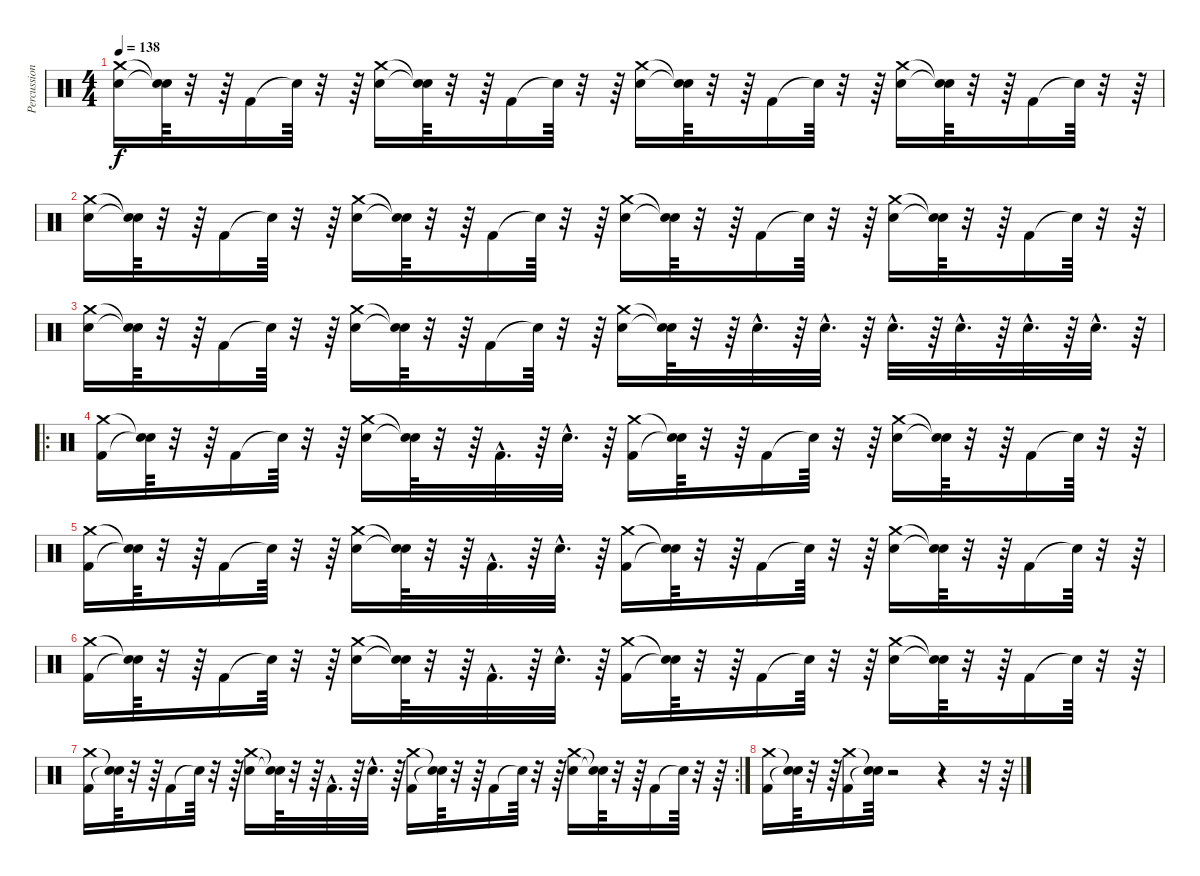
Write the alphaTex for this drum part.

\track ("Percussions" "Percussion") {instrument percussion}
\staff {score}
\articulation defaults
\ts (4 4)
\tempo 138
\clef neutral
\ks c
("Electric Snare (hit)" "Crash medium (hit)").16{dy f} ("Snare (hit)"{t} "Snare (hit)"{t}).64 r.32 r.64 "Kick (hit) 2".16 "Snare (hit)"{t}.64 r.32 r.64 ("Electric Snare (hit)" "Crash medium (hit)").16 ("Snare (hit)"{t} "Snare (hit)"{t}).64 r.32 r.64 "Kick (hit) 2".16 "Snare (hit)"{t}.64 r.32 r.64 ("Electric Snare (hit)" "Crash medium (hit)").16 ("Snare (hit)"{t} "Snare (hit)"{t}).64 r.32 r.64 "Kick (hit) 2".16 "Snare (hit)"{t}.64 r.32 r.64 ("Electric Snare (hit)" "Crash medium (hit)").16 ("Snare (hit)"{t} "Snare (hit)"{t}).64 r.32 r.64 "Kick (hit) 2".16 "Snare (hit)"{t}.64 r.32 r.64 |
("Electric Snare (hit)" "Crash medium (hit)").16 ("Snare (hit)"{t} "Snare (hit)"{t}).64 r.32 r.64 "Kick (hit) 2".16 "Snare (hit)"{t}.64 r.32 r.64 ("Electric Snare (hit)" "Crash medium (hit)").16 ("Snare (hit)"{t} "Snare (hit)"{t}).64 r.32 r.64 "Kick (hit) 2".16 "Snare (hit)"{t}.64 r.32 r.64 ("Electric Snare (hit)" "Crash medium (hit)").16 ("Snare (hit)"{t} "Snare (hit)"{t}).64 r.32 r.64 "Kick (hit) 2".16 "Snare (hit)"{t}.64 r.32 r.64 ("Electric Snare (hit)" "Crash medium (hit)").16 ("Snare (hit)"{t} "Snare (hit)"{t}).64 r.32 r.64 "Kick (hit) 2".16 "Snare (hit)"{t}.64 r.32 r.64 |
("Electric Snare (hit)" "Crash medium (hit)").16 ("Snare (hit)"{t} "Snare (hit)"{t}).64 r.32 r.64 "Kick (hit) 2".16 "Snare (hit)"{t}.64 r.32 r.64 ("Electric Snare (hit)" "Crash medium (hit)").16 ("Snare (hit)"{t} "Snare (hit)"{t}).64 r.32 r.64 "Kick (hit) 2".16 "Snare (hit)"{t}.64 r.32 r.64 ("Electric Snare (hit)" "Crash medium (hit)").16 ("Snare (hit)"{t} "Snare (hit)"{t}).64 r.32 r.64 "Electric Snare (hit)"{hac}.32{d} r.64 "Electric Snare (hit)"{hac}.32{d} r.64 "Electric Snare (hit)"{hac}.32{d} r.64 "Electric Snare (hit)"{hac}.32{d} r.64 "Electric Snare (hit)"{hac}.32{d} r.64 "Electric Snare (hit)"{hac}.32{d} r.64 |
\ro
("Kick (hit) 2" "Crash medium (hit)").16 ("Snare (hit)"{t} "Snare (hit)"{t}).64 r.32 r.64 "Kick (hit) 2".16 "Snare (hit)"{t}.64 r.32 r.64 ("Electric Snare (hit)" "Crash medium (hit)").16 ("Snare (hit)"{t} "Snare (hit)"{t}).64 r.32 r.64 "Kick (hit) 2"{hac}.32{d} r.64 "Electric Snare (hit)"{hac}.32{d} r.64 ("Kick (hit) 2" "Crash medium (hit)").16 ("Snare (hit)"{t} "Snare (hit)"{t}).64 r.32 r.64 "Kick (hit) 2".16 "Snare (hit)"{t}.64 r.32 r.64 ("Electric Snare (hit)" "Crash medium (hit)").16 ("Snare (hit)"{t} "Snare (hit)"{t}).64 r.32 r.64 "Kick (hit) 2".16 "Snare (hit)"{t}.64 r.32 r.64 |
("Kick (hit) 2" "Crash medium (hit)").16 ("Snare (hit)"{t} "Snare (hit)"{t}).64 r.32 r.64 "Kick (hit) 2".16 "Snare (hit)"{t}.64 r.32 r.64 ("Electric Snare (hit)" "Crash medium (hit)").16 ("Snare (hit)"{t} "Snare (hit)"{t}).64 r.32 r.64 "Kick (hit) 2"{hac}.32{d} r.64 "Electric Snare (hit)"{hac}.32{d} r.64 ("Kick (hit) 2" "Crash medium (hit)").16 ("Snare (hit)"{t} "Snare (hit)"{t}).64 r.32 r.64 "Kick (hit) 2".16 "Snare (hit)"{t}.64 r.32 r.64 ("Electric Snare (hit)" "Crash medium (hit)").16 ("Snare (hit)"{t} "Snare (hit)"{t}).64 r.32 r.64 "Kick (hit) 2".16 "Snare (hit)"{t}.64 r.32 r.64 |
("Kick (hit) 2" "Crash medium (hit)").16 ("Snare (hit)"{t} "Snare (hit)"{t}).64 r.32 r.64 "Kick (hit) 2".16 "Snare (hit)"{t}.64 r.32 r.64 ("Electric Snare (hit)" "Crash medium (hit)").16 ("Snare (hit)"{t} "Snare (hit)"{t}).64 r.32 r.64 "Kick (hit) 2"{hac}.32{d} r.64 "Electric Snare (hit)"{hac}.32{d} r.64 ("Kick (hit) 2" "Crash medium (hit)").16 ("Snare (hit)"{t} "Snare (hit)"{t}).64 r.32 r.64 "Kick (hit) 2".16 "Snare (hit)"{t}.64 r.32 r.64 ("Electric Snare (hit)" "Crash medium (hit)").16 ("Snare (hit)"{t} "Snare (hit)"{t}).64 r.32 r.64 "Kick (hit) 2".16 "Snare (hit)"{t}.64 r.32 r.64 |
\rc 2
("Kick (hit) 2" "Crash medium (hit)").16 ("Snare (hit)"{t} "Snare (hit)"{t}).64 r.32 r.64 "Kick (hit) 2".16 "Snare (hit)"{t}.64 r.32 r.64 ("Electric Snare (hit)" "Crash medium (hit)").16 ("Snare (hit)"{t} "Snare (hit)"{t}).64 r.32 r.64 "Kick (hit) 2"{hac}.32{d} r.64 "Electric Snare (hit)"{hac}.32{d} r.64 ("Kick (hit) 2" "Crash medium (hit)").16 ("Snare (hit)"{t} "Snare (hit)"{t}).64 r.32 r.64 "Kick (hit) 2".16 "Snare (hit)"{t}.64 r.32 r.64 ("Electric Snare (hit)" "Crash medium (hit)").16 ("Snare (hit)"{t} "Snare (hit)"{t}).64 r.32 r.64 "Kick (hit) 2".16 "Snare (hit)"{t}.64 r.32 r.64 |
("Kick (hit) 2" "Crash medium (hit)").16 ("Snare (hit)"{t} "Snare (hit)"{t}).64 r.32 r.64 ("Kick (hit) 2" "Crash medium (hit)").16 ("Snare (hit)"{t} "Snare (hit)"{t}).64 r.2 r.4 r.32 r.64
